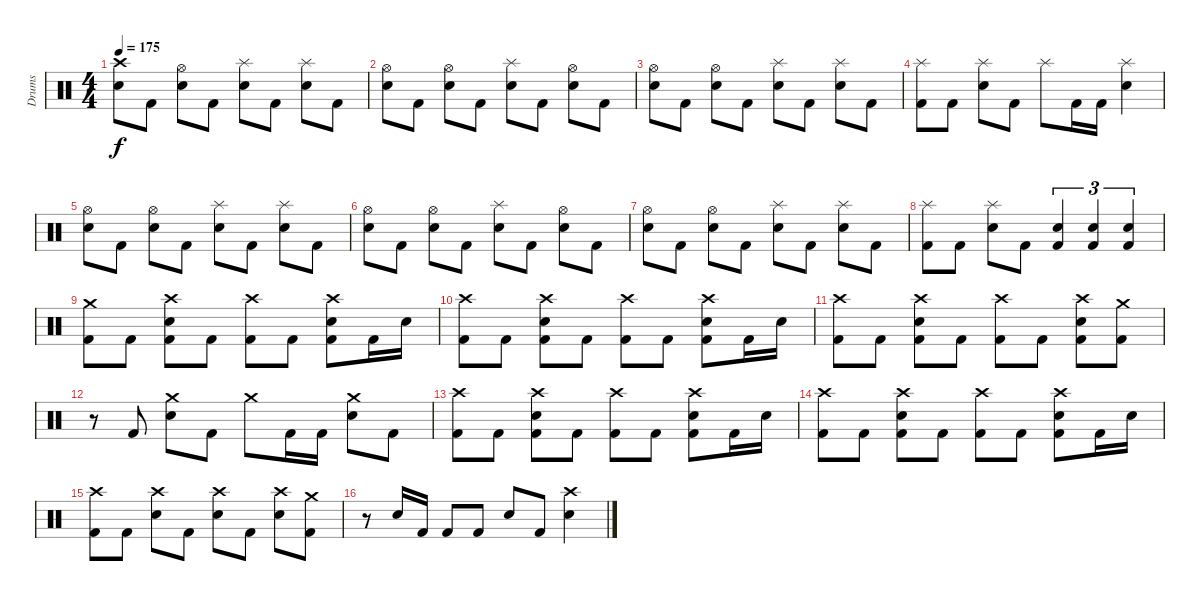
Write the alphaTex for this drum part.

\track ("Drums" "Drums") {instrument percussion}
\staff {score}
\articulation defaults
\ts (4 4)
\tempo 175
\clef neutral
\ks c
("Crash high (hit)" "Electric Snare (hit)").8{dy f} "Kick (hit) 2".8 ("Hi-Hat (open)" "Electric Snare (hit)").8 "Kick (hit) 2".8 ("Splash (hit)" "Electric Snare (hit)").8 "Kick (hit) 2".8 ("Splash (hit)" "Electric Snare (hit)").8 "Kick (hit) 2".8 |
("Hi-Hat (open)" "Electric Snare (hit)").8 "Kick (hit) 2".8 ("Hi-Hat (open)" "Electric Snare (hit)").8 "Kick (hit) 2".8 ("Splash (hit)" "Electric Snare (hit)").8 "Kick (hit) 2".8 ("Hi-Hat (open)" "Electric Snare (hit)").8 "Kick (hit) 2".8 |
("Hi-Hat (open)" "Electric Snare (hit)").8 "Kick (hit) 2".8 ("Hi-Hat (open)" "Electric Snare (hit)").8 "Kick (hit) 2".8 ("Splash (hit)" "Electric Snare (hit)").8 "Kick (hit) 2".8 ("Splash (hit)" "Electric Snare (hit)").8 "Kick (hit) 2".8 |
("Splash (hit)" "Kick (hit) 2").8 "Kick (hit) 2".8 ("Splash (hit)" "Electric Snare (hit)").8 "Kick (hit) 2".8 "Splash (hit)".8 "Kick (hit) 2".16 "Kick (hit) 2".16 ("Splash (hit)" "Electric Snare (hit)").4 |
("Hi-Hat (open)" "Electric Snare (hit)").8 "Kick (hit) 2".8 ("Hi-Hat (open)" "Electric Snare (hit)").8 "Kick (hit) 2".8 ("Splash (hit)" "Electric Snare (hit)").8 "Kick (hit) 2".8 ("Splash (hit)" "Electric Snare (hit)").8 "Kick (hit) 2".8 |
("Hi-Hat (open)" "Electric Snare (hit)").8 "Kick (hit) 2".8 ("Hi-Hat (open)" "Electric Snare (hit)").8 "Kick (hit) 2".8 ("Splash (hit)" "Electric Snare (hit)").8 "Kick (hit) 2".8 ("Hi-Hat (open)" "Electric Snare (hit)").8 "Kick (hit) 2".8 |
("Hi-Hat (open)" "Electric Snare (hit)").8 "Kick (hit) 2".8 ("Hi-Hat (open)" "Electric Snare (hit)").8 "Kick (hit) 2".8 ("Splash (hit)" "Electric Snare (hit)").8 "Kick (hit) 2".8 ("Splash (hit)" "Electric Snare (hit)").8 "Kick (hit) 2".8 |
("Splash (hit)" "Kick (hit) 2").8 "Kick (hit) 2".8 ("Splash (hit)" "Electric Snare (hit)").8 "Kick (hit) 2".8 ("Electric Snare (hit)" "Kick (hit) 2").4{tu (3 2)} ("Electric Snare (hit)" "Kick (hit) 2").4{tu (3 2)} ("Electric Snare (hit)" "Kick (hit) 2").4{tu (3 2)} |
("Crash medium (hit)" "Kick (hit) 2").8 "Kick (hit) 2".8 ("Crash high (hit)" "Electric Snare (hit)" "Kick (hit) 2").8 "Kick (hit) 2".8 ("Crash high (hit)" "Kick (hit) 2").8 "Kick (hit) 2".8 ("Crash high (hit)" "Electric Snare (hit)" "Kick (hit) 2").8 "Kick (hit) 2".16 "Electric Snare (hit)".16 |
("Crash high (hit)" "Kick (hit) 2").8 "Kick (hit) 2".8 ("Crash high (hit)" "Electric Snare (hit)" "Kick (hit) 2").8 "Kick (hit) 2".8 ("Crash high (hit)" "Kick (hit) 2").8 "Kick (hit) 2".8 ("Crash high (hit)" "Electric Snare (hit)" "Kick (hit) 2").8 "Kick (hit) 2".16 "Electric Snare (hit)".16 |
("Crash high (hit)" "Kick (hit) 2").8 "Kick (hit) 2".8 ("Crash high (hit)" "Electric Snare (hit)" "Kick (hit) 2").8 "Kick (hit) 2".8 ("Crash high (hit)" "Kick (hit) 2").8 "Kick (hit) 2".8 ("Crash high (hit)" "Electric Snare (hit)" "Kick (hit) 2").8 ("Crash medium (hit)" "Kick (hit) 2").8 |
r.8 "Kick (hit) 2".8 ("Crash medium (hit)" "Electric Snare (hit)").8 "Kick (hit) 2".8 "Crash medium (hit)".8 "Kick (hit) 2".16 "Kick (hit) 2".16 ("Crash medium (hit)" "Electric Snare (hit)").8 "Kick (hit) 2".8 |
("Crash high (hit)" "Kick (hit) 2").8 "Kick (hit) 2".8 ("Crash high (hit)" "Electric Snare (hit)" "Kick (hit) 2").8 "Kick (hit) 2".8 ("Crash high (hit)" "Kick (hit) 2").8 "Kick (hit) 2".8 ("Crash high (hit)" "Electric Snare (hit)" "Kick (hit) 2").8 "Kick (hit) 2".16 "Electric Snare (hit)".16 |
("Crash high (hit)" "Kick (hit) 2").8 "Kick (hit) 2".8 ("Crash high (hit)" "Electric Snare (hit)" "Kick (hit) 2").8 "Kick (hit) 2".8 ("Crash high (hit)" "Kick (hit) 2").8 "Kick (hit) 2".8 ("Crash high (hit)" "Electric Snare (hit)" "Kick (hit) 2").8 "Kick (hit) 2".16 "Electric Snare (hit)".16 |
("Crash high (hit)" "Kick (hit) 2").8 "Kick (hit) 2".8 ("Crash high (hit)" "Electric Snare (hit)").8 "Kick (hit) 2".8 ("Crash high (hit)" "Electric Snare (hit)").8 "Kick (hit) 2".8 ("Crash high (hit)" "Electric Snare (hit)").8 ("Crash medium (hit)" "Kick (hit) 2").8 |
r.8 "Electric Snare (hit)".16 "Kick (hit) 2".16 "Kick (hit) 2".8 "Kick (hit) 2".8 "Electric Snare (hit)".8 "Kick (hit) 2".8 ("Crash high (hit)" "Electric Snare (hit)").4
